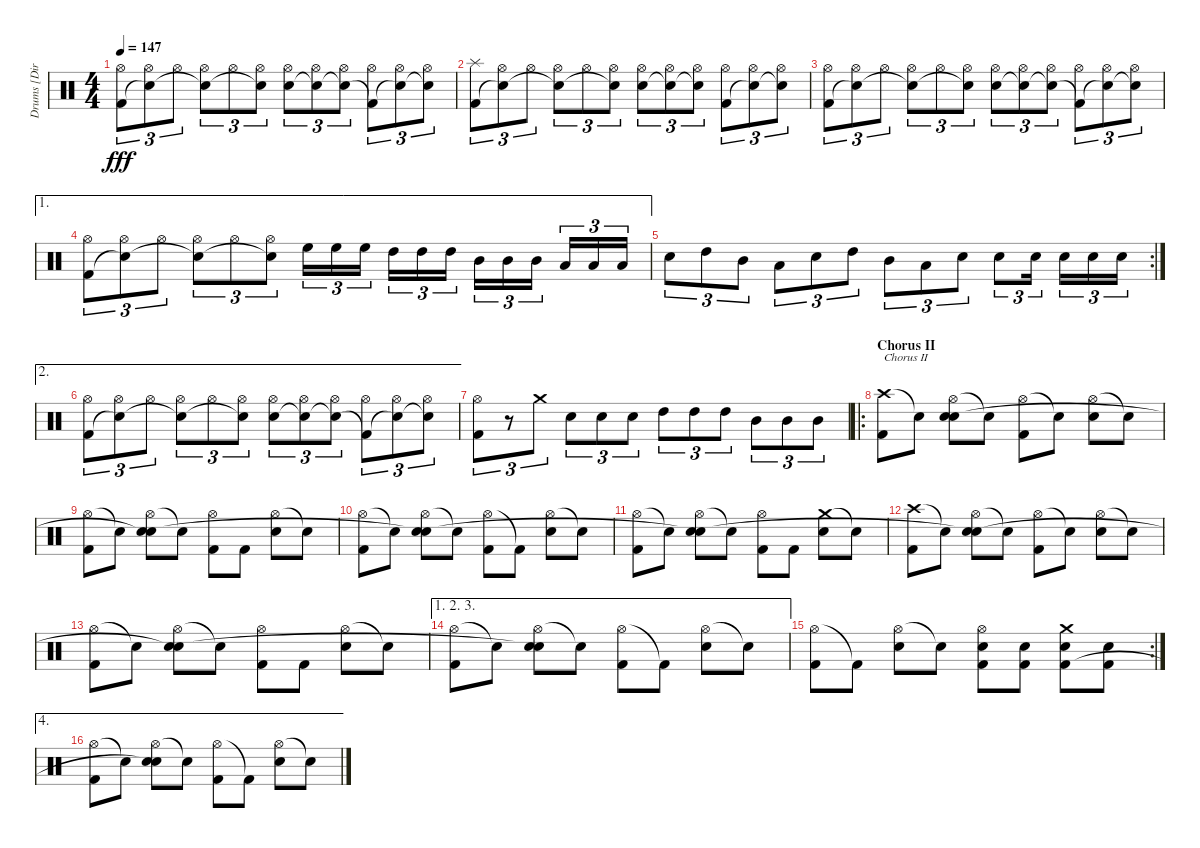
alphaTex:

\track ("Drums [Dirge Rep]" "Drums [Dir") {instrument percussion}
\staff {score}
\articulation defaults
\ts (4 4)
\tempo 147
\clef neutral
\ks c
("Hi-Hat (open)" "Kick (hit) 2").8{tu (3 2) dy fff} ("Hi-Hat (open)" "Snare (hit)"{t}).8{tu (3 2)} "Hi-Hat (open)".8{tu (3 2)} ("Hi-Hat (open)" "Snare (hit)"{t}).8{tu (3 2)} "Hi-Hat (open)".8{tu (3 2)} ("Hi-Hat (open)" "Snare (hit)"{t}).8{tu (3 2)} ("Hi-Hat (open)" "Electric Snare (hit)").8{tu (3 2)} ("Hi-Hat (open)" "Snare (hit)"{t}).8{tu (3 2)} ("Hi-Hat (open)" "Snare (hit)"{t}).8{tu (3 2)} ("Hi-Hat (open)" "Kick (hit) 2"{t}).8{tu (3 2)} ("Hi-Hat (open)" "Snare (hit)"{t}).8{tu (3 2)} ("Hi-Hat (open)" "Snare (hit)"{t}).8{tu (3 2)} |
("Splash (hit)" "Kick (hit) 2").8{tu (3 2)} ("Hi-Hat (open)" "Snare (hit)"{t}).8{tu (3 2)} "Hi-Hat (open)".8{tu (3 2)} ("Hi-Hat (open)" "Snare (hit)"{t}).8{tu (3 2)} "Hi-Hat (open)".8{tu (3 2)} ("Hi-Hat (open)" "Snare (hit)"{t}).8{tu (3 2)} ("Hi-Hat (open)" "Electric Snare (hit)").8{tu (3 2)} ("Hi-Hat (open)" "Snare (hit)"{t}).8{tu (3 2)} ("Hi-Hat (open)" "Snare (hit)"{t}).8{tu (3 2)} ("Hi-Hat (open)" "Kick (hit) 2").8{tu (3 2)} ("Hi-Hat (open)" "Snare (hit)"{t}).8{tu (3 2)} ("Hi-Hat (open)" "Snare (hit)"{t}).8{tu (3 2)} |
("Hi-Hat (open)" "Kick (hit) 2").8{tu (3 2)} ("Hi-Hat (open)" "Snare (hit)"{t}).8{tu (3 2)} "Hi-Hat (open)".8{tu (3 2)} ("Hi-Hat (open)" "Snare (hit)"{t}).8{tu (3 2)} "Hi-Hat (open)".8{tu (3 2)} ("Hi-Hat (open)" "Snare (hit)"{t}).8{tu (3 2)} ("Hi-Hat (open)" "Electric Snare (hit)").8{tu (3 2)} ("Hi-Hat (open)" "Snare (hit)"{t}).8{tu (3 2)} ("Hi-Hat (open)" "Snare (hit)"{t}).8{tu (3 2)} ("Hi-Hat (open)" "Kick (hit) 2"{t}).8{tu (3 2)} ("Hi-Hat (open)" "Snare (hit)"{t}).8{tu (3 2)} ("Hi-Hat (open)" "Snare (hit)"{t}).8{tu (3 2)} |
\ae 1
("Hi-Hat (open)" "Kick (hit) 2").8{tu (3 2)} ("Hi-Hat (open)" "Snare (hit)"{t}).8{tu (3 2)} "Hi-Hat (open)".8{tu (3 2)} ("Hi-Hat (open)" "Snare (hit)"{t}).8{tu (3 2)} "Hi-Hat (open)".8{tu (3 2)} ("Hi-Hat (open)" "Snare (hit)"{t}).8{tu (3 2)} "High Floor Tom (hit)".16{tu (3 2)} "High Floor Tom (hit)".16{tu (3 2)} "High Floor Tom (hit)".16{tu (3 2)} "High Tom (hit)".16{tu (3 2)} "High Tom (hit)".16{tu (3 2)} "High Tom (hit)".16{tu (3 2)} "Mid Tom (hit)".16{tu (3 2)} "Mid Tom (hit)".16{tu (3 2)} "Mid Tom (hit)".16{tu (3 2)} "Low Tom (hit)".16{tu (3 2)} "Low Tom (hit)".16{tu (3 2)} "Low Tom (hit)".16{tu (3 2)} |
\rc 2 "Electric Snare (hit)".8{tu (3 2)} "High Tom (hit)".8{tu (3 2)} "Mid Tom (hit)".8{tu (3 2)} "Low Tom (hit)".8{tu (3 2)} "Electric Snare (hit)".8{tu (3 2)} "High Tom (hit)".8{tu (3 2)} "Mid Tom (hit)".8{tu (3 2)} "Low Tom (hit)".8{tu (3 2)} "Electric Snare (hit)".8{tu (3 2)} "Electric Snare (hit)".8{tu (3 2)} "Electric Snare (hit)".16{tu (3 2)} "Electric Snare (hit)".16{tu (3 2)} "Electric Snare (hit)".16{tu (3 2)} "Electric Snare (hit)".16{tu (3 2)}
|
\ae 2
("Hi-Hat (open)" "Kick (hit) 2").8{tu (3 2)} ("Hi-Hat (open)" "Snare (hit)"{t}).8{tu (3 2)} "Hi-Hat (open)".8{tu (3 2)} ("Hi-Hat (open)" "Snare (hit)"{t}).8{tu (3 2)} "Hi-Hat (open)".8{tu (3 2)} ("Hi-Hat (open)" "Snare (hit)"{t}).8{tu (3 2)} ("Hi-Hat (open)" "Electric Snare (hit)").8{tu (3 2)} ("Hi-Hat (open)" "Snare (hit)"{t}).8{tu (3 2)} ("Hi-Hat (open)" "Snare (hit)"{t}).8{tu (3 2)} ("Hi-Hat (open)" "Kick (hit) 2"{t}).8{tu (3 2)} ("Hi-Hat (open)" "Snare (hit)"{t}).8{tu (3 2)} ("Hi-Hat (open)" "Snare (hit)"{t}).8{tu (3 2)} |
("Hi-Hat (open)" "Kick (hit) 2").8{tu (3 2)} r.8{tu (3 2)} "Crash medium (hit)".8{tu (3 2)} "Electric Snare (hit)".8{tu (3 2)} "Electric Snare (hit)".8{tu (3 2)} "Electric Snare (hit)".8{tu (3 2)} "High Tom (hit)".8{tu (3 2)} "High Tom (hit)".8{tu (3 2)} "High Tom (hit)".8{tu (3 2)} "Mid Tom (hit)".8{tu (3 2)} "Mid Tom (hit)".8{tu (3 2)} "Mid Tom (hit)".8{tu (3 2)} |
\ro
\section ("" "Chorus II")
("Crash high (hit)" "Kick (hit) 2").8{txt "Chorus II"} "Snare (hit)"{t}.8 ("Hi-Hat (open)" "Electric Snare (hit)" "Snare (hit)").8 "Snare (hit)"{t}.8 ("Hi-Hat (open)" "Kick (hit) 2").8 "Snare (hit)"{t}.8 ("Hi-Hat (open)" "Electric Snare (hit)").8 "Snare (hit)"{t}.8 |
("Hi-Hat (open)" "Kick (hit) 2").8 "Snare (hit)"{t}.8 ("Hi-Hat (open)" "Electric Snare (hit)" "Snare (hit)"{t}).8 "Snare (hit)"{t}.8 ("Hi-Hat (open)" "Kick (hit) 2").8 "Kick (hit) 2".8 ("Hi-Hat (open)" "Electric Snare (hit)").8 "Snare (hit)"{t}.8 |
("Hi-Hat (open)" "Kick (hit) 2").8 "Snare (hit)"{t}.8 ("Hi-Hat (open)" "Electric Snare (hit)" "Snare (hit)"{t}).8 "Snare (hit)"{t}.8 ("Hi-Hat (open)" "Kick (hit) 2").8 "Kick (hit) 2"{t}.8 ("Hi-Hat (open)" "Electric Snare (hit)").8 "Snare (hit)"{t}.8 |
("Hi-Hat (open)" "Kick (hit) 2").8 "Snare (hit)"{t}.8 ("Hi-Hat (open)" "Electric Snare (hit)" "Snare (hit)"{t}).8 "Snare (hit)"{t}.8 ("Hi-Hat (open)" "Kick (hit) 2").8 "Kick (hit) 2".8 ("Crash medium (hit)" "Electric Snare (hit)").8 "Snare (hit)"{t}.8 |
("Crash high (hit)" "Kick (hit) 2").8 "Snare (hit)"{t}.8 ("Hi-Hat (open)" "Electric Snare (hit)" "Snare (hit)"{t}).8 "Snare (hit)"{t}.8 ("Hi-Hat (open)" "Kick (hit) 2").8 "Snare (hit)"{t}.8 ("Hi-Hat (open)" "Electric Snare (hit)").8 "Snare (hit)"{t}.8 |
("Hi-Hat (open)" "Kick (hit) 2").8 "Snare (hit)"{t}.8 ("Hi-Hat (open)" "Electric Snare (hit)" "Snare (hit)"{t}).8 "Snare (hit)"{t}.8 ("Hi-Hat (open)" "Kick (hit) 2").8 "Kick (hit) 2".8 ("Hi-Hat (open)" "Electric Snare (hit)").8 "Snare (hit)"{t}.8 |
\ae (1 2 3)
("Hi-Hat (open)" "Kick (hit) 2").8 "Snare (hit)"{t}.8 ("Hi-Hat (open)" "Electric Snare (hit)" "Snare (hit)"{t}).8 "Snare (hit)"{t}.8 ("Hi-Hat (open)" "Kick (hit) 2").8 "Kick (hit) 2"{t}.8 ("Hi-Hat (open)" "Electric Snare (hit)").8 "Snare (hit)"{t}.8 |
\rc 2
("Hi-Hat (open)" "Kick (hit) 2").8 "Kick (hit) 2"{t}.8 ("Hi-Hat (open)" "Electric Snare (hit)").8 "Electric Snare (hit)"{t}.8 ("Hi-Hat (open)" "Electric Snare (hit)" "Kick (hit) 2").8 ("Electric Snare (hit)" "Kick (hit) 2").8 ("Crash medium (hit)" "Electric Snare (hit)" "Kick (hit) 2").8 ("Electric Snare (hit)" "Kick (hit) 2").8 |
\ae 4
("Hi-Hat (open)" "Kick (hit) 2").8 "Snare (hit)"{t}.8 ("Hi-Hat (open)" "Electric Snare (hit)" "Snare (hit)"{t}).8 "Snare (hit)"{t}.8 ("Hi-Hat (open)" "Kick (hit) 2").8 "Kick (hit) 2"{t}.8 ("Hi-Hat (open)" "Electric Snare (hit)").8 "Snare (hit)"{t}.8
